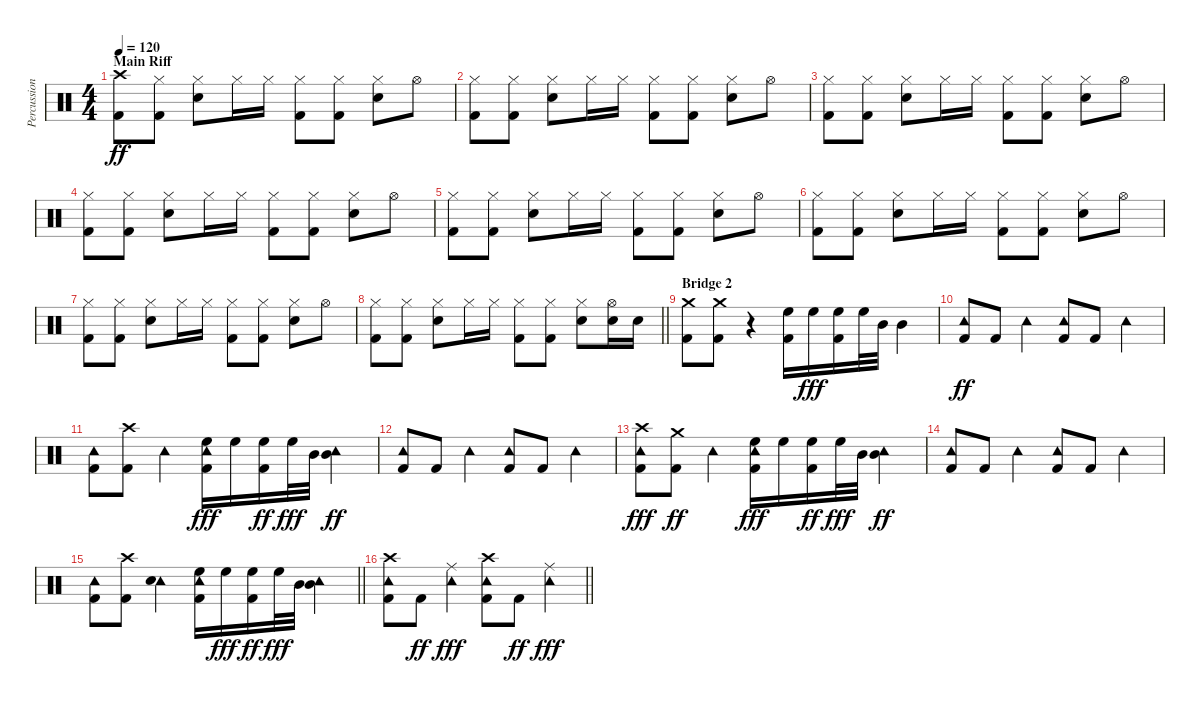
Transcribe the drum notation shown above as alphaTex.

\track ("Percussion" "Percussion") {instrument percussion}
\staff {score}
\articulation defaults
\ts (4 4)
\section ("" "Main Riff")
\tempo 120
\clef neutral
\ks c
("Crash high (hit)" "Kick (hit) 2").8{dy ff} ("Kick (hit) 2" "Hi-Hat (closed)").8 ("Hi-Hat (closed)" "Snare (hit) 2").8 "Hi-Hat (closed)".16 "Hi-Hat (closed)".16 ("Kick (hit) 2" "Hi-Hat (closed)").8 ("Kick (hit) 2" "Hi-Hat (closed)").8 ("Hi-Hat (closed)" "Snare (hit) 2").8 "Hi-Hat (open)".8 |
("Kick (hit) 2" "Hi-Hat (closed)").8 ("Kick (hit) 2" "Hi-Hat (closed)").8 ("Hi-Hat (closed)" "Snare (hit) 2").8 "Hi-Hat (closed)".16 "Hi-Hat (closed)".16 ("Hi-Hat (closed)" "Kick (hit) 2").8 ("Kick (hit) 2" "Hi-Hat (closed)").8 ("Snare (hit) 2" "Hi-Hat (closed)").8 "Hi-Hat (open)".8 |
("Hi-Hat (closed)" "Kick (hit) 2").8 ("Hi-Hat (closed)" "Kick (hit) 2").8 ("Hi-Hat (closed)" "Snare (hit) 2").8 "Hi-Hat (closed)".16 "Hi-Hat (closed)".16 ("Hi-Hat (closed)" "Kick (hit) 2").8 ("Hi-Hat (closed)" "Kick (hit) 2").8 ("Hi-Hat (closed)" "Snare (hit) 2").8 "Hi-Hat (open)".8 |
("Hi-Hat (closed)" "Kick (hit) 2").8 ("Hi-Hat (closed)" "Kick (hit) 2").8 ("Hi-Hat (closed)" "Snare (hit) 2").8 "Hi-Hat (closed)".16 "Hi-Hat (closed)".16 ("Hi-Hat (closed)" "Kick (hit) 2").8 ("Kick (hit) 2" "Hi-Hat (closed)").8 ("Snare (hit) 2" "Hi-Hat (closed)").8 "Hi-Hat (open)".8 |
("Hi-Hat (closed)" "Kick (hit) 2").8 ("Hi-Hat (closed)" "Kick (hit) 2").8 ("Hi-Hat (closed)" "Snare (hit) 2").8 "Hi-Hat (closed)".16 "Hi-Hat (closed)".16 ("Kick (hit) 2" "Hi-Hat (closed)").8 ("Hi-Hat (closed)" "Kick (hit) 2").8 ("Hi-Hat (closed)" "Snare (hit) 2").8 "Hi-Hat (open)".8 |
("Hi-Hat (closed)" "Kick (hit) 2").8 ("Hi-Hat (closed)" "Kick (hit) 2").8 ("Hi-Hat (closed)" "Snare (hit) 2").8 "Hi-Hat (closed)".16 "Hi-Hat (closed)".16 ("Hi-Hat (closed)" "Kick (hit) 2").8 ("Hi-Hat (closed)" "Kick (hit) 2").8 ("Hi-Hat (closed)" "Snare (hit) 2").8 "Hi-Hat (open)".8 |
("Hi-Hat (closed)" "Kick (hit) 2").8 ("Hi-Hat (closed)" "Kick (hit) 2").8 ("Snare (hit) 2" "Hi-Hat (closed)").8 "Hi-Hat (closed)".16 "Hi-Hat (closed)".16 ("Kick (hit) 2" "Hi-Hat (closed)").8 ("Hi-Hat (closed)" "Kick (hit) 2").8 ("Hi-Hat (closed)" "Snare (hit) 2").8 "Hi-Hat (open)".8 |
\barLineRight lightlight
("Kick (hit) 2" "Hi-Hat (closed)").8 ("Hi-Hat (closed)" "Kick (hit) 2").8 ("Snare (hit) 2" "Hi-Hat (closed)").8 "Hi-Hat (closed)".16 "Hi-Hat (closed)".16 ("Hi-Hat (closed)" "Kick (hit) 2").8 ("Hi-Hat (closed)" "Kick (hit) 2").8 ("Hi-Hat (closed)" "Snare (hit) 2").8 ("Hi-Hat (open)" "Snare (hit) 2").16 "Snare (hit) 2".16 |
\section ("" "Bridge 2")
("Crash medium (hit)" "Kick (hit) 2").8 ("Crash medium (hit)" "Kick (hit) 2").8 r.4 ("High Floor Tom (hit)" "Kick (hit) 2").16 "High Floor Tom (hit)".16{dy fff} ("Kick (hit) 2" "High Floor Tom (hit)").16 "High Floor Tom (hit)".32 "Mid Tom (hit)".32 "Mid Tom (hit)".4 |
("Tambourine (hit)" "Kick (hit) 2").8{dy ff} "Kick (hit) 2".8 "Tambourine (hit)".4 ("Tambourine (hit)" "Kick (hit) 2").8 "Kick (hit) 2".8 "Tambourine (hit)".4 |
("Tambourine (hit)" "Kick (hit) 2").8 ("Crash high (hit)" "Kick (hit) 2").8 "Tambourine (hit)".4 ("Kick (hit) 2" "Tambourine (hit)" "High Floor Tom (hit)").16{dy fff} "High Floor Tom (hit)".16 ("High Floor Tom (hit)" "Kick (hit) 2").16{dy ff} "High Floor Tom (hit)".32{dy fff} "Mid Tom (hit)".32 ("Mid Tom (hit)" "Tambourine (hit)").4{dy ff} |
("Tambourine (hit)" "Kick (hit) 2").8 "Kick (hit) 2".8 "Tambourine (hit)".4 ("Tambourine (hit)" "Kick (hit) 2").8 "Kick (hit) 2".8 "Tambourine (hit)".4 |
("Tambourine (hit)" "Kick (hit) 2" "Crash high (hit)").8{dy fff} ("Crash medium (hit)" "Kick (hit) 2").8{dy ff} "Tambourine (hit)".4 ("Tambourine (hit)" "Kick (hit) 2" "High Floor Tom (hit)").16{dy fff} "High Floor Tom (hit)".16 ("High Floor Tom (hit)" "Kick (hit) 2").16{dy ff} "High Floor Tom (hit)".32{dy fff} "Mid Tom (hit)".32 ("Mid Tom (hit)" "Tambourine (hit)").4{dy ff} |
("Kick (hit) 2" "Tambourine (hit)").8 "Kick (hit) 2".8 "Tambourine (hit)".4 ("Kick (hit) 2" "Tambourine (hit)").8 "Kick (hit) 2".8 "Tambourine (hit)".4 |
\barLineRight lightlight
("Kick (hit) 2" "Tambourine (hit)").8 ("Crash high (hit)" "Kick (hit) 2").8 ("Tambourine (hit)" "Snare (hit) 2").4 ("Tambourine (hit)" "High Floor Tom (hit)" "Kick (hit) 2").16 "High Floor Tom (hit)".16{dy fff} ("High Floor Tom (hit)" "Kick (hit) 2").16{dy ff} "High Floor Tom (hit)".32{dy fff} "Mid Tom (hit)".32 ("Tambourine (hit)" "Mid Tom (hit)").4 |
\barLineRight lightlight
("Tambourine (hit)" "Kick (hit) 2" "Crash high (hit)").8 "Kick (hit) 2".8{dy ff} ("Tambourine (hit)" "Ride (middle)").4{dy fff} ("Kick (hit) 2" "Tambourine (hit)" "Crash high (hit)").8 "Kick (hit) 2".8{dy ff} ("Tambourine (hit)" "Ride (middle)").4{dy fff}
